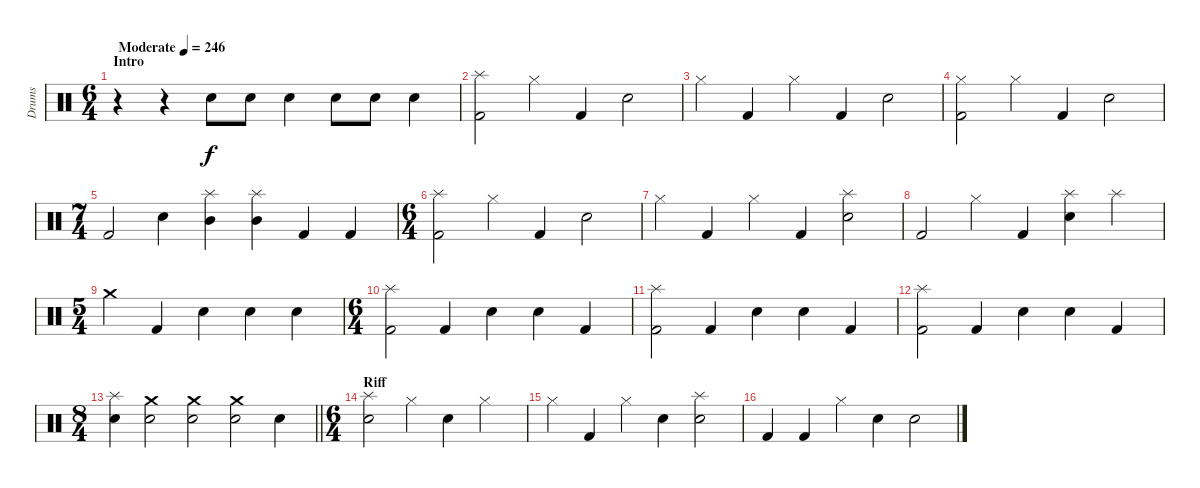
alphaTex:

\track ("Drums" "Drums") {instrument percussion}
\staff {score}
\articulation defaults
\ts (6 4)
\section ("" "Intro")
\tempo (246 "Moderate")
\clef neutral
\ks c
r.4{dy f} r.4 "Electric Snare (hit)".8 "Electric Snare (hit)".8 "Electric Snare (hit)".4 "Electric Snare (hit)".8 "Electric Snare (hit)".8 "Electric Snare (hit)".4 |
("Splash (hit)" "Kick (hit) 2").2 "Hi-Hat (closed)".4 "Kick (hit) 2".4 "Snare (hit) 2".2 |
"Hi-Hat (closed)".4 "Kick (hit) 2".4 "Hi-Hat (closed)".4 "Kick (hit) 2".4 "Snare (hit) 2".2 |
("Hi-Hat (closed)" "Kick (hit) 2").2 "Hi-Hat (closed)".4 "Kick (hit) 2".4 "Snare (hit) 2".2 |
\ts (7 4)
"Kick (hit) 2".2 "Snare (hit) 2".4 ("Splash (hit)" "Mid Tom (hit)").4 ("Splash (hit)" "Mid Tom (hit)").4 "Kick (hit) 2".4 "Kick (hit) 2".4 |
\ts (6 4)
("Splash (hit)" "Kick (hit) 2").2 "Hi-Hat (closed)".4 "Kick (hit) 2".4 "Snare (hit) 2".2 |
"Hi-Hat (closed)".4 "Kick (hit) 2".4 "Hi-Hat (closed)".4 "Kick (hit) 2".4 ("Splash (hit)" "Snare (hit) 2").2 |
"Kick (hit) 2".2 "Hi-Hat (closed)".4 "Kick (hit) 2".4 ("Splash (hit)" "Snare (hit) 2").4 "Splash (hit)".4 |
\ts (5 4)
"Crash medium (hit)".4 "Kick (hit) 2".4 "Snare (hit) 2".4 "Snare (hit) 2".4 "Snare (hit) 2".4 |
\ts (6 4)
("Splash (hit)" "Kick (hit) 2").2 "Kick (hit) 2".4 "Snare (hit) 2".4 "Snare (hit) 2".4 "Kick (hit) 2".4 |
("Splash (hit)" "Kick (hit) 2").2 "Kick (hit) 2".4 "Snare (hit) 2".4 "Snare (hit) 2".4 "Kick (hit) 2".4 |
("Splash (hit)" "Kick (hit) 2").2 "Kick (hit) 2".4 "Snare (hit) 2".4 "Snare (hit) 2".4 "Kick (hit) 2".4 |
\ts (8 4)
\barLineRight lightlight
("Splash (hit)" "Snare (hit) 2").4 ("Crash medium (hit)" "Snare (hit) 2").2 ("Crash medium (hit)" "Snare (hit) 2").2 ("Crash medium (hit)" "Snare (hit) 2").2 "Snare (hit) 2".4 |
\ts (6 4)
\section ("" "Riff")
("Splash (hit)" "Snare (hit) 2").2 "Hi-Hat (closed)".4 "Snare (hit) 2".4 "Hi-Hat (closed)".2 |
"Hi-Hat (closed)".4 "Kick (hit) 2".4 "Hi-Hat (closed)".4 "Snare (hit) 2".4 ("Splash (hit)" "Snare (hit) 2").2 |
"Kick (hit) 2".4 "Kick (hit) 2".4 "Hi-Hat (closed)".4 "Snare (hit) 2".4 "Snare (hit) 2".2
